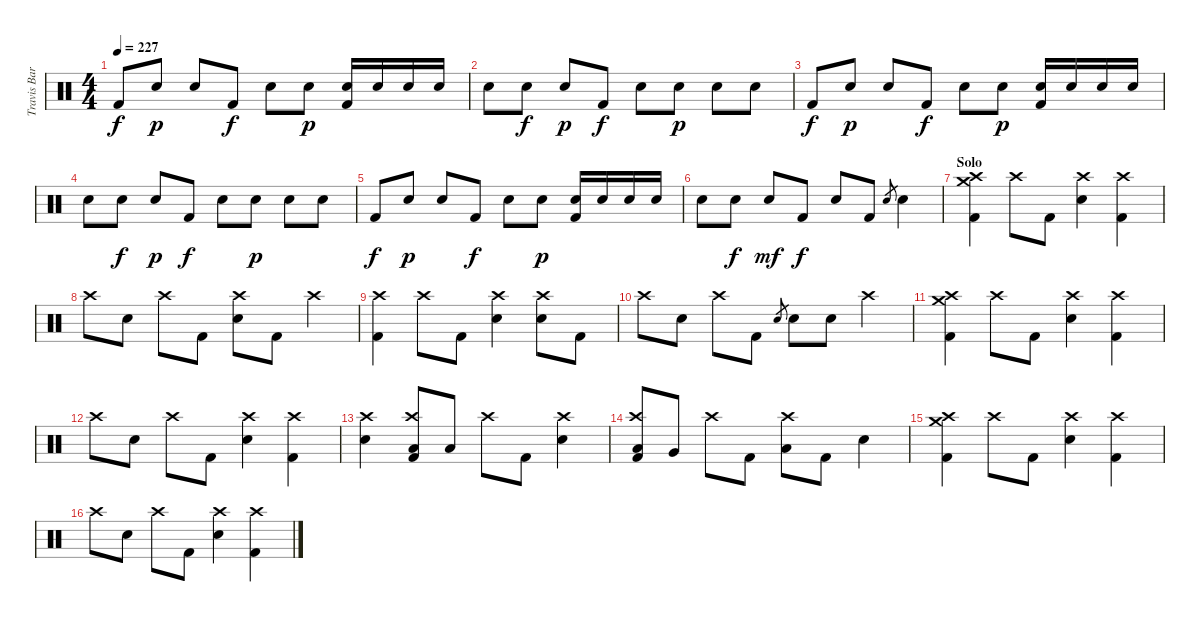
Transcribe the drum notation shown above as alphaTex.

\track ("Travis Barker - Batería" "Travis Bar") {instrument percussion}
\staff {score}
\articulation defaults
\ts (4 4)
\tempo 227
\clef neutral
\ks c "Kick (hit) 2".8{dy f} "Electric Snare (hit)".8{dy p} "Electric Snare (hit)".8 "Kick (hit) 2".8{dy f} "Electric Snare (hit)".8 "Electric Snare (hit)".8{dy p}
("Electric Snare (hit)" "Kick (hit) 2").16 "Electric Snare (hit)".16 "Electric Snare (hit)".16 "Electric Snare (hit)".16 |
"Electric Snare (hit)".8 "Electric Snare (hit)".8{dy f} "Electric Snare (hit)".8{dy p} "Kick (hit) 2".8{dy f} "Electric Snare (hit)".8 "Electric Snare (hit)".8{dy p} "Electric Snare (hit)".8 "Electric Snare (hit)".8 |
"Kick (hit) 2".8{dy f} "Electric Snare (hit)".8{dy p} "Electric Snare (hit)".8 "Kick (hit) 2".8{dy f} "Electric Snare (hit)".8 "Electric Snare (hit)".8{dy p} ("Electric Snare (hit)" "Kick (hit) 2").16 "Electric Snare (hit)".16 "Electric Snare (hit)".16 "Electric Snare (hit)".16 |
"Electric Snare (hit)".8 "Electric Snare (hit)".8{dy f} "Electric Snare (hit)".8{dy p} "Kick (hit) 2".8{dy f} "Electric Snare (hit)".8 "Electric Snare (hit)".8{dy p} "Electric Snare (hit)".8 "Electric Snare (hit)".8 |
"Kick (hit) 2".8{dy f} "Electric Snare (hit)".8{dy p} "Electric Snare (hit)".8 "Kick (hit) 2".8{dy f} "Electric Snare (hit)".8 "Electric Snare (hit)".8{dy p} ("Electric Snare (hit)" "Kick (hit) 2").16 "Electric Snare (hit)".16 "Electric Snare (hit)".16 "Electric Snare (hit)".16 |
"Electric Snare (hit)".8 "Electric Snare (hit)".8{dy f} "Electric Snare (hit)".8{dy mf} "Kick (hit) 2".8{dy f} "Electric Snare (hit)".8 "Kick (hit) 2".8 "Electric Snare (hit)".8{gr} "Electric Snare (hit)".4 |
\section ("" "Solo")
("Crash medium (hit)" "Crash high (hit)" "Kick (hit) 2").4 "Crash high (hit)".8 "Kick (hit) 2".8 ("Crash high (hit)" "Electric Snare (hit)").4 ("Crash high (hit)" "Kick (hit) 2").4 |
"Crash high (hit)".8 "Electric Snare (hit)".8 "Crash high (hit)".8 "Kick (hit) 2".8 ("Crash high (hit)" "Electric Snare (hit)").8 "Kick (hit) 2".8 "Crash high (hit)".4 |
("Crash high (hit)" "Kick (hit) 2").4 "Crash high (hit)".8 "Kick (hit) 2".8 ("Crash high (hit)" "Electric Snare (hit)").4 ("Crash high (hit)" "Electric Snare (hit)").8 "Kick (hit) 2".8 |
"Crash high (hit)".8 "Electric Snare (hit)".8 "Crash high (hit)".8 "Kick (hit) 2".8 "Electric Snare (hit)".8{gr} "Electric Snare (hit)".8 "Electric Snare (hit)".8 "Crash high (hit)".4 |
("Crash medium (hit)" "Crash high (hit)" "Kick (hit) 2").4 "Crash high (hit)".8 "Kick (hit) 2".8 ("Crash high (hit)" "Electric Snare (hit)").4 ("Crash high (hit)" "Kick (hit) 2").4 |
"Crash high (hit)".8 "Electric Snare (hit)".8 "Crash high (hit)".8 "Kick (hit) 2".8 ("Crash high (hit)" "Electric Snare (hit)").4 ("Crash high (hit)" "Kick (hit) 2").4 |
("Crash high (hit)" "Electric Snare (hit)").4 ("Crash high (hit)" "Low Tom (hit)" "Kick (hit) 2").8 "Low Tom (hit)".8 "Crash high (hit)".8 "Kick (hit) 2".8 ("Crash high (hit)" "Electric Snare (hit)").4 |
("Crash high (hit)" "Low Tom (hit)" "Kick (hit) 2").8 "Very Low Tom (hit)".8 "Crash high (hit)".8 "Kick (hit) 2".8 ("Crash high (hit)" "Low Floor Tom (hit)").8 "Kick (hit) 2".8 "Electric Snare (hit)".4 |
("Crash medium (hit)" "Crash high (hit)" "Kick (hit) 2").4 "Crash high (hit)".8 "Kick (hit) 2".8 ("Crash high (hit)" "Electric Snare (hit)").4 ("Crash high (hit)" "Kick (hit) 2").4 |
"Crash high (hit)".8 "Electric Snare (hit)".8 "Crash high (hit)".8 "Kick (hit) 2".8 ("Crash high (hit)" "Electric Snare (hit)").4 ("Crash high (hit)" "Kick (hit) 2").4
